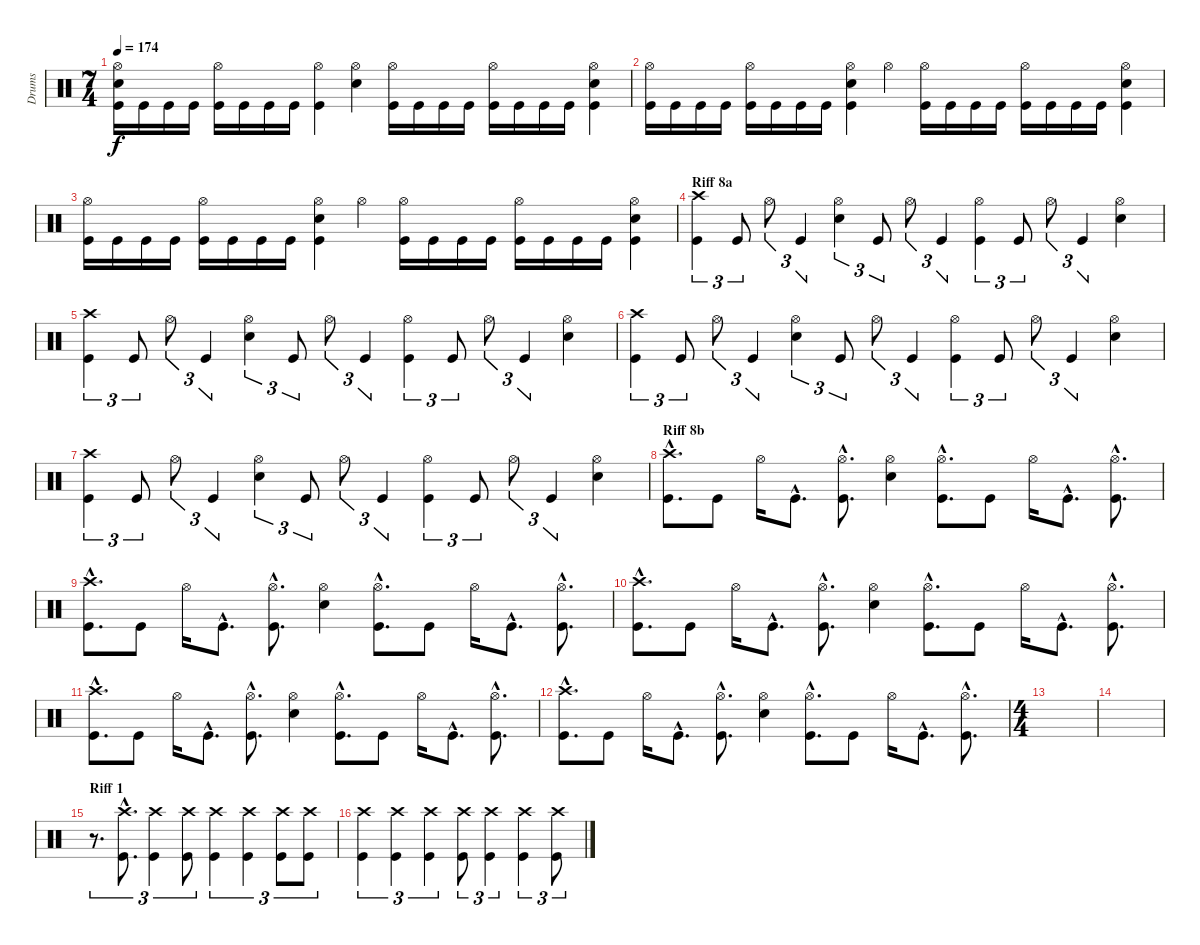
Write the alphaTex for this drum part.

\track ("Drums" "Drums") {instrument percussion}
\staff {score}
\articulation defaults
\ts (7 4)
\tempo 174
\clef neutral
\ks c
("Hi-Hat (open)" "Electric Snare (hit)" "Kick (hit)").16{dy f} "Kick (hit)".16 "Kick (hit)".16 "Kick (hit)".16 ("Hi-Hat (open)" "Kick (hit)").16 "Kick (hit)".16 "Kick (hit)".16 "Kick (hit)".16 ("Hi-Hat (open)" "Kick (hit)").4 ("Hi-Hat (open)" "Electric Snare (hit)").4 ("Hi-Hat (open)" "Kick (hit)").16 "Kick (hit)".16 "Kick (hit)".16 "Kick (hit)".16 ("Hi-Hat (open)" "Kick (hit)").16 "Kick (hit)".16 "Kick (hit)".16 "Kick (hit)".16 ("Hi-Hat (open)" "Electric Snare (hit)" "Kick (hit)").4 |
("Hi-Hat (open)" "Kick (hit)").16 "Kick (hit)".16 "Kick (hit)".16 "Kick (hit)".16 ("Hi-Hat (open)" "Kick (hit)").16 "Kick (hit)".16 "Kick (hit)".16 "Kick (hit)".16 ("Hi-Hat (open)" "Electric Snare (hit)" "Kick (hit)").4 "Hi-Hat (open)".4 ("Hi-Hat (open)" "Kick (hit)").16 "Kick (hit)".16 "Kick (hit)".16 "Kick (hit)".16 ("Hi-Hat (open)" "Kick (hit)").16 "Kick (hit)".16 "Kick (hit)".16 "Kick (hit)".16 ("Hi-Hat (open)" "Electric Snare (hit)" "Kick (hit)").4 |
("Hi-Hat (open)" "Kick (hit)").16 "Kick (hit)".16 "Kick (hit)".16 "Kick (hit)".16 ("Hi-Hat (open)" "Kick (hit)").16 "Kick (hit)".16 "Kick (hit)".16 "Kick (hit)".16 ("Hi-Hat (open)" "Electric Snare (hit)" "Kick (hit)").4 "Hi-Hat (open)".4 ("Hi-Hat (open)" "Kick (hit)").16 "Kick (hit)".16 "Kick (hit)".16 "Kick (hit)".16 ("Hi-Hat (open)" "Kick (hit)").16 "Kick (hit)".16 "Kick (hit)".16 "Kick (hit)".16 ("Hi-Hat (open)" "Electric Snare (hit)" "Kick (hit)").4 |
\section ("" "Riff 8a")
("Crash high (hit)" "Kick (hit)").4{tu (3 2)} "Kick (hit)".8{tu (3 2)} "Hi-Hat (open)".8{tu (3 2)} "Kick (hit)".4{tu (3 2)} ("Hi-Hat (open)" "Electric Snare (hit)").4{tu (3 2)} "Kick (hit)".8{tu (3 2)} "Hi-Hat (open)".8{tu (3 2)} "Kick (hit)".4{tu (3 2)} ("Hi-Hat (open)" "Kick (hit)").4{tu (3 2)} "Kick (hit)".8{tu (3 2)} "Hi-Hat (open)".8{tu (3 2)} "Kick (hit)".4{tu (3 2)} ("Hi-Hat (open)" "Electric Snare (hit)").4 |
("Crash high (hit)" "Kick (hit)").4{tu (3 2)} "Kick (hit)".8{tu (3 2)} "Hi-Hat (open)".8{tu (3 2)} "Kick (hit)".4{tu (3 2)} ("Hi-Hat (open)" "Electric Snare (hit)").4{tu (3 2)} "Kick (hit)".8{tu (3 2)} "Hi-Hat (open)".8{tu (3 2)} "Kick (hit)".4{tu (3 2)} ("Hi-Hat (open)" "Kick (hit)").4{tu (3 2)} "Kick (hit)".8{tu (3 2)} "Hi-Hat (open)".8{tu (3 2)} "Kick (hit)".4{tu (3 2)} ("Hi-Hat (open)" "Electric Snare (hit)").4 |
("Crash high (hit)" "Kick (hit)").4{tu (3 2)} "Kick (hit)".8{tu (3 2)} "Hi-Hat (open)".8{tu (3 2)} "Kick (hit)".4{tu (3 2)} ("Hi-Hat (open)" "Electric Snare (hit)").4{tu (3 2)} "Kick (hit)".8{tu (3 2)} "Hi-Hat (open)".8{tu (3 2)} "Kick (hit)".4{tu (3 2)} ("Hi-Hat (open)" "Kick (hit)").4{tu (3 2)} "Kick (hit)".8{tu (3 2)} "Hi-Hat (open)".8{tu (3 2)} "Kick (hit)".4{tu (3 2)} ("Hi-Hat (open)" "Electric Snare (hit)").4 |
("Crash high (hit)" "Kick (hit)").4{tu (3 2)} "Kick (hit)".8{tu (3 2)} "Hi-Hat (open)".8{tu (3 2)} "Kick (hit)".4{tu (3 2)} ("Hi-Hat (open)" "Electric Snare (hit)").4{tu (3 2)} "Kick (hit)".8{tu (3 2)} "Hi-Hat (open)".8{tu (3 2)} "Kick (hit)".4{tu (3 2)} ("Hi-Hat (open)" "Kick (hit)").4{tu (3 2)} "Kick (hit)".8{tu (3 2)} "Hi-Hat (open)".8{tu (3 2)} "Kick (hit)".4{tu (3 2)} ("Hi-Hat (open)" "Electric Snare (hit)").4 |
\section ("" "Riff 8b")
("Crash high (hit)"{hac} "Kick (hit)"{hac}).8{d} "Kick (hit)".8 "Hi-Hat (open)".16 "Kick (hit)"{hac}.8{d} ("Hi-Hat (open)"{hac} "Kick (hit)"{hac}).8{d} ("Hi-Hat (open)" "Electric Snare (hit)").4 ("Hi-Hat (open)"{hac} "Kick (hit)"{hac}).8{d} "Kick (hit)".8 "Hi-Hat (open)".16 "Kick (hit)"{hac}.8{d} ("Hi-Hat (open)"{hac} "Kick (hit)"{hac}).8{d} |
("Crash high (hit)"{hac} "Kick (hit)"{hac}).8{d} "Kick (hit)".8 "Hi-Hat (open)".16 "Kick (hit)"{hac}.8{d} ("Hi-Hat (open)"{hac} "Kick (hit)"{hac}).8{d} ("Hi-Hat (open)" "Electric Snare (hit)").4 ("Hi-Hat (open)"{hac} "Kick (hit)"{hac}).8{d} "Kick (hit)".8 "Hi-Hat (open)".16 "Kick (hit)"{hac}.8{d} ("Hi-Hat (open)"{hac} "Kick (hit)"{hac}).8{d} |
("Crash high (hit)"{hac} "Kick (hit)"{hac}).8{d} "Kick (hit)".8 "Hi-Hat (open)".16 "Kick (hit)"{hac}.8{d} ("Hi-Hat (open)"{hac} "Kick (hit)"{hac}).8{d} ("Hi-Hat (open)" "Electric Snare (hit)").4 ("Hi-Hat (open)"{hac} "Kick (hit)"{hac}).8{d} "Kick (hit)".8 "Hi-Hat (open)".16 "Kick (hit)"{hac}.8{d} ("Hi-Hat (open)"{hac} "Kick (hit)"{hac}).8{d} |
("Crash high (hit)"{hac} "Kick (hit)"{hac}).8{d} "Kick (hit)".8 "Hi-Hat (open)".16 "Kick (hit)"{hac}.8{d} ("Hi-Hat (open)"{hac} "Kick (hit)"{hac}).8{d} ("Hi-Hat (open)" "Electric Snare (hit)").4 ("Hi-Hat (open)"{hac} "Kick (hit)"{hac}).8{d} "Kick (hit)".8 "Hi-Hat (open)".16 "Kick (hit)"{hac}.8{d} ("Hi-Hat (open)"{hac} "Kick (hit)"{hac}).8{d} |
("Crash high (hit)"{hac} "Kick (hit)"{hac}).8{d} "Kick (hit)".8 "Hi-Hat (open)".16 "Kick (hit)"{hac}.8{d} ("Hi-Hat (open)"{hac} "Kick (hit)"{hac}).8{d} ("Hi-Hat (open)" "Electric Snare (hit)").4 ("Hi-Hat (open)"{hac} "Kick (hit)"{hac}).8{d} "Kick (hit)".8 "Hi-Hat (open)".16 "Kick (hit)"{hac}.8{d} ("Hi-Hat (open)"{hac} "Kick (hit)"{hac}).8{d} |
\ts (4 4)
|
|
\section ("" "Riff 1")
r.8{d tu (3 2)} ("Crash high (hit)"{hac} "Kick (hit)"{hac}).8{d tu (3 2)} ("Crash high (hit)" "Kick (hit)").4{tu (3 2)} ("Crash high (hit)" "Kick (hit)").8{tu (3 2)} ("Crash high (hit)" "Kick (hit)").4{tu (3 2)} ("Crash high (hit)" "Kick (hit)").4{tu (3 2)} ("Crash high (hit)" "Kick (hit)").8{tu (3 2)} ("Crash high (hit)" "Kick (hit)").8{tu (3 2)} |
("Crash high (hit)" "Kick (hit)").4{tu (3 2)} ("Crash high (hit)" "Kick (hit)").4{tu (3 2)} ("Crash high (hit)" "Kick (hit)").4{tu (3 2)} ("Crash high (hit)" "Kick (hit)").8{tu (3 2)} ("Crash high (hit)" "Kick (hit)").4{tu (3 2)} ("Crash high (hit)" "Kick (hit)").4{tu (3 2)} ("Crash high (hit)" "Kick (hit)").8{tu (3 2)}
